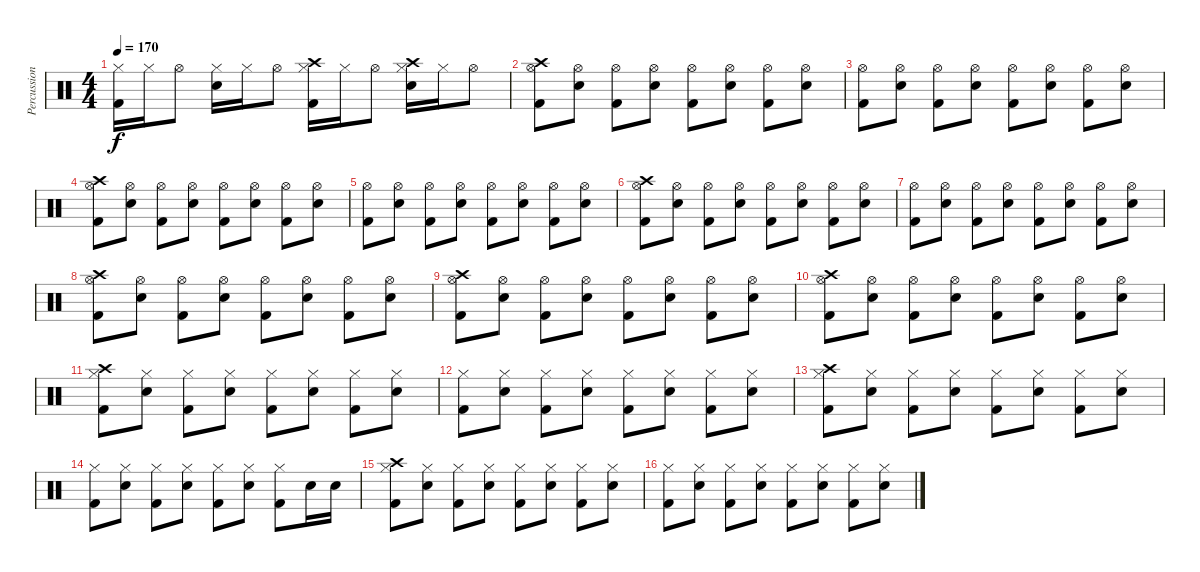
\track ("Percussion" "Percussion") {instrument percussion}
\staff {score}
\articulation defaults
\ts (4 4)
\tempo 170
\clef neutral
\ks c
("Hi-Hat (closed)" "Kick (hit) 2").16{dy f} "Hi-Hat (closed)".16 "Hi-Hat (open)".8 ("Hi-Hat (closed)" "Snare (hit) 2").16 "Hi-Hat (closed)".16 "Hi-Hat (open)".8 ("Hi-Hat (closed)" "Kick (hit) 2" "Crash high (hit)").16 "Hi-Hat (closed)".16 "Hi-Hat (open)".8 ("Hi-Hat (closed)" "Snare (hit) 2" "Crash high (hit)").16 "Hi-Hat (closed)".16 "Hi-Hat (open)".8 |
("Hi-Hat (open)" "Kick (hit) 2" "Crash high (hit)").8 ("Hi-Hat (open)" "Snare (hit) 2").8 ("Hi-Hat (open)" "Kick (hit) 2").8 ("Hi-Hat (open)" "Snare (hit) 2").8 ("Hi-Hat (open)" "Kick (hit) 2").8 ("Hi-Hat (open)" "Snare (hit) 2").8 ("Hi-Hat (open)" "Kick (hit) 2").8 ("Hi-Hat (open)" "Snare (hit) 2").8 |
("Hi-Hat (open)" "Kick (hit) 2").8 ("Hi-Hat (open)" "Snare (hit) 2").8 ("Hi-Hat (open)" "Kick (hit) 2").8 ("Hi-Hat (open)" "Snare (hit) 2").8 ("Hi-Hat (open)" "Kick (hit) 2").8 ("Hi-Hat (open)" "Snare (hit) 2").8 ("Hi-Hat (open)" "Kick (hit) 2").8 ("Hi-Hat (open)" "Snare (hit) 2").8 |
("Hi-Hat (open)" "Kick (hit) 2" "Crash high (hit)").8 ("Hi-Hat (open)" "Snare (hit) 2").8 ("Hi-Hat (open)" "Kick (hit) 2").8 ("Hi-Hat (open)" "Snare (hit) 2").8 ("Hi-Hat (open)" "Kick (hit) 2").8 ("Hi-Hat (open)" "Snare (hit) 2").8 ("Hi-Hat (open)" "Kick (hit) 2").8 ("Hi-Hat (open)" "Snare (hit) 2").8 |
("Hi-Hat (open)" "Kick (hit) 2").8 ("Hi-Hat (open)" "Snare (hit) 2").8 ("Hi-Hat (open)" "Kick (hit) 2").8 ("Hi-Hat (open)" "Snare (hit) 2").8 ("Hi-Hat (open)" "Kick (hit) 2").8 ("Hi-Hat (open)" "Snare (hit) 2").8 ("Hi-Hat (open)" "Kick (hit) 2").8 ("Hi-Hat (open)" "Snare (hit) 2").8 |
("Hi-Hat (open)" "Kick (hit) 2" "Crash high (hit)").8 ("Hi-Hat (open)" "Snare (hit) 2").8 ("Hi-Hat (open)" "Kick (hit) 2").8 ("Hi-Hat (open)" "Snare (hit) 2").8 ("Hi-Hat (open)" "Kick (hit) 2").8 ("Hi-Hat (open)" "Snare (hit) 2").8 ("Hi-Hat (open)" "Kick (hit) 2").8 ("Hi-Hat (open)" "Snare (hit) 2").8 |
("Hi-Hat (open)" "Kick (hit) 2").8 ("Hi-Hat (open)" "Snare (hit) 2").8 ("Hi-Hat (open)" "Kick (hit) 2").8 ("Hi-Hat (open)" "Snare (hit) 2").8 ("Hi-Hat (open)" "Kick (hit) 2").8 ("Hi-Hat (open)" "Snare (hit) 2").8 ("Hi-Hat (open)" "Kick (hit) 2").8 ("Hi-Hat (open)" "Snare (hit) 2").8 |
("Hi-Hat (open)" "Kick (hit) 2" "Crash high (hit)").8 ("Hi-Hat (open)" "Snare (hit) 2").8 ("Hi-Hat (open)" "Kick (hit) 2").8 ("Hi-Hat (open)" "Snare (hit) 2").8 ("Hi-Hat (open)" "Kick (hit) 2").8 ("Hi-Hat (open)" "Snare (hit) 2").8 ("Hi-Hat (open)" "Kick (hit) 2").8 ("Hi-Hat (open)" "Snare (hit) 2").8 |
("Hi-Hat (open)" "Kick (hit) 2" "Crash high (hit)").8 ("Hi-Hat (open)" "Snare (hit) 2").8 ("Hi-Hat (open)" "Kick (hit) 2").8 ("Hi-Hat (open)" "Snare (hit) 2").8 ("Hi-Hat (open)" "Kick (hit) 2").8 ("Hi-Hat (open)" "Snare (hit) 2").8 ("Hi-Hat (open)" "Kick (hit) 2").8 ("Hi-Hat (open)" "Snare (hit) 2").8 |
("Hi-Hat (open)" "Kick (hit) 2" "Crash high (hit)").8 ("Hi-Hat (open)" "Snare (hit) 2").8 ("Hi-Hat (open)" "Kick (hit) 2").8 ("Hi-Hat (open)" "Snare (hit) 2").8 ("Hi-Hat (open)" "Kick (hit) 2").8 ("Hi-Hat (open)" "Snare (hit) 2").8 ("Hi-Hat (open)" "Kick (hit) 2").8 ("Hi-Hat (open)" "Snare (hit) 2").8 |
("Hi-Hat (closed)" "Kick (hit) 2" "Crash high (hit)").8 ("Hi-Hat (closed)" "Snare (hit) 2").8 ("Hi-Hat (closed)" "Kick (hit) 2").8 ("Hi-Hat (closed)" "Snare (hit) 2").8 ("Hi-Hat (closed)" "Kick (hit) 2").8 ("Hi-Hat (closed)" "Snare (hit) 2").8 ("Hi-Hat (closed)" "Kick (hit) 2").8 ("Hi-Hat (closed)" "Snare (hit) 2").8 |
("Hi-Hat (closed)" "Kick (hit) 2").8 ("Hi-Hat (closed)" "Snare (hit) 2").8 ("Hi-Hat (closed)" "Kick (hit) 2").8 ("Hi-Hat (closed)" "Snare (hit) 2").8 ("Hi-Hat (closed)" "Kick (hit) 2").8 ("Hi-Hat (closed)" "Snare (hit) 2").8 ("Hi-Hat (closed)" "Kick (hit) 2").8 ("Hi-Hat (closed)" "Snare (hit) 2").8 |
("Hi-Hat (closed)" "Kick (hit) 2" "Crash high (hit)").8 ("Hi-Hat (closed)" "Snare (hit) 2").8 ("Hi-Hat (closed)" "Kick (hit) 2").8 ("Hi-Hat (closed)" "Snare (hit) 2").8 ("Hi-Hat (closed)" "Kick (hit) 2").8 ("Hi-Hat (closed)" "Snare (hit) 2").8 ("Hi-Hat (closed)" "Kick (hit) 2").8 ("Hi-Hat (closed)" "Snare (hit) 2").8 |
("Hi-Hat (closed)" "Kick (hit) 2").8 ("Hi-Hat (closed)" "Snare (hit) 2").8 ("Hi-Hat (closed)" "Kick (hit) 2").8 ("Hi-Hat (closed)" "Snare (hit) 2").8 ("Hi-Hat (closed)" "Kick (hit) 2").8 ("Hi-Hat (closed)" "Snare (hit) 2").8 ("Hi-Hat (closed)" "Kick (hit) 2").8 "Snare (hit) 2".16 "Snare (hit) 2".16 |
("Hi-Hat (closed)" "Kick (hit) 2" "Crash high (hit)").8 ("Hi-Hat (closed)" "Snare (hit) 2").8 ("Hi-Hat (closed)" "Kick (hit) 2").8 ("Hi-Hat (closed)" "Snare (hit) 2").8 ("Hi-Hat (closed)" "Kick (hit) 2").8 ("Hi-Hat (closed)" "Snare (hit) 2").8 ("Hi-Hat (closed)" "Kick (hit) 2").8 ("Hi-Hat (closed)" "Snare (hit) 2").8 |
("Hi-Hat (closed)" "Kick (hit) 2").8 ("Hi-Hat (closed)" "Snare (hit) 2").8 ("Hi-Hat (closed)" "Kick (hit) 2").8 ("Hi-Hat (closed)" "Snare (hit) 2").8 ("Hi-Hat (closed)" "Kick (hit) 2").8 ("Hi-Hat (closed)" "Snare (hit) 2").8 ("Hi-Hat (closed)" "Kick (hit) 2").8 ("Hi-Hat (closed)" "Snare (hit) 2").8
